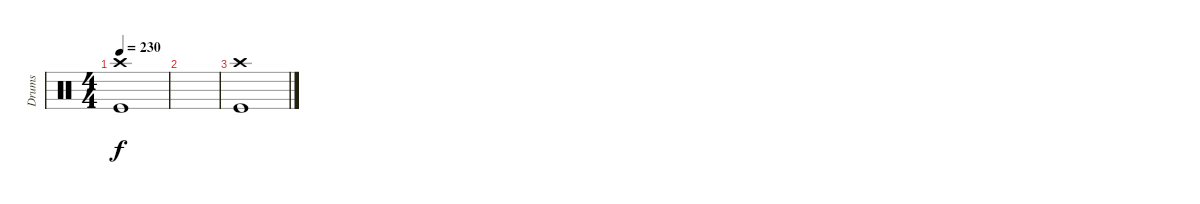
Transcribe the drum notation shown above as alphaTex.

\track ("Drums" "Drums") {instrument percussion}
\staff {score}
\articulation defaults
\ts (4 4)
\tempo 230
\clef neutral
\ks c
("Crash high (hit)" "Kick (hit)").1{dy f} |
|
("Crash high (hit)" "Kick (hit)").1
